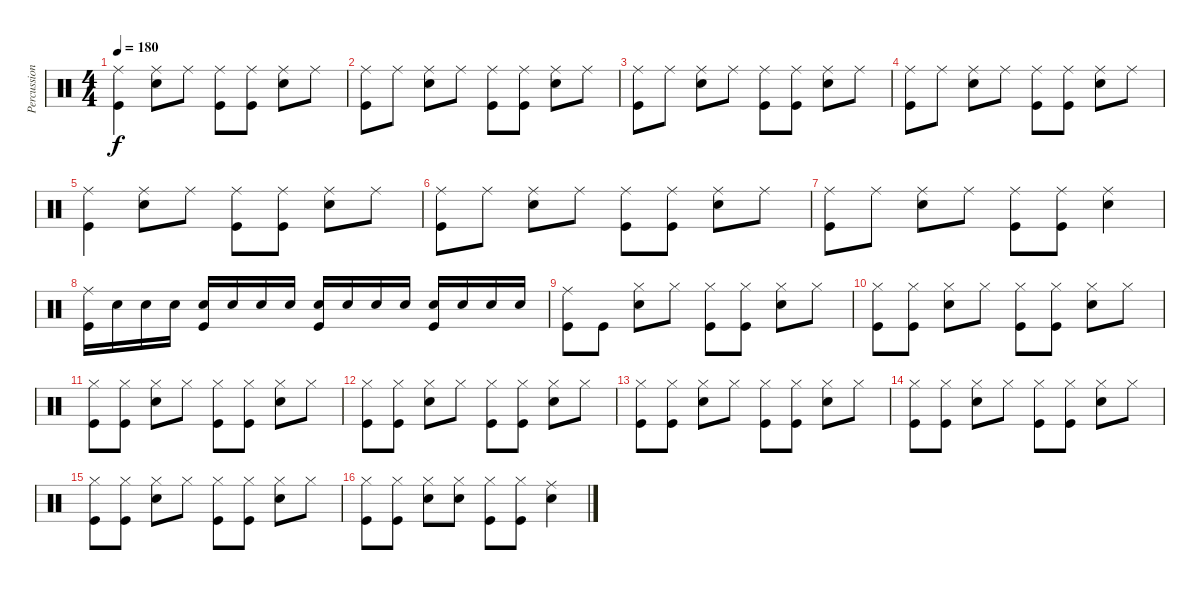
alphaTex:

\track ("Percussion" "Percussion") {instrument percussion}
\staff {score}
\articulation defaults
\ts (4 4)
\tempo 180
\clef neutral
\ks c
("Ride (middle)" "Kick (hit)").4{dy f} ("Ride (middle)" "Snare (hit) 2").8 "Ride (middle)".8 ("Ride (middle)" "Kick (hit)").8 ("Ride (middle)" "Kick (hit)").8 ("Ride (middle)" "Snare (hit) 2").8 "Ride (middle)".8 |
("Ride (middle)" "Kick (hit)").8 "Ride (middle)".8 ("Ride (middle)" "Snare (hit) 2").8 "Ride (middle)".8 ("Ride (middle)" "Kick (hit)").8 ("Ride (middle)" "Kick (hit)").8 ("Ride (middle)" "Snare (hit) 2").8 "Ride (middle)".8 |
("Ride (middle)" "Kick (hit)").8 "Ride (middle)".8 ("Ride (middle)" "Snare (hit) 2").8 "Ride (middle)".8 ("Ride (middle)" "Kick (hit)").8 ("Ride (middle)" "Kick (hit)").8 ("Ride (middle)" "Snare (hit) 2").8 "Ride (middle)".8 |
("Ride (middle)" "Kick (hit)").8 "Ride (middle)".8 ("Ride (middle)" "Snare (hit) 2").8 "Ride (middle)".8 ("Ride (middle)" "Kick (hit)").8 ("Ride (middle)" "Kick (hit)").8 ("Ride (middle)" "Snare (hit) 2").8 "Ride (middle)".8 |
("Ride (middle)" "Kick (hit)").4 ("Ride (middle)" "Snare (hit) 2").8 "Ride (middle)".8 ("Ride (middle)" "Kick (hit)").8 ("Ride (middle)" "Kick (hit)").8 ("Ride (middle)" "Snare (hit) 2").8 "Ride (middle)".8 |
("Ride (middle)" "Kick (hit)").8 "Ride (middle)".8 ("Ride (middle)" "Snare (hit) 2").8 "Ride (middle)".8 ("Ride (middle)" "Kick (hit)").8 ("Ride (middle)" "Kick (hit)").8 ("Ride (middle)" "Snare (hit) 2").8 "Ride (middle)".8 |
("Ride (middle)" "Kick (hit)").8 "Ride (middle)".8 ("Ride (middle)" "Snare (hit) 2").8 "Ride (middle)".8 ("Ride (middle)" "Kick (hit)").8 ("Ride (middle)" "Kick (hit)").8 ("Ride (middle)" "Snare (hit) 2").4 |
("Ride (middle)" "Kick (hit)").16 "Snare (hit) 2".16 "Snare (hit) 2".16 "Snare (hit) 2".16 ("Snare (hit) 2" "Kick (hit)").16 "Snare (hit) 2".16 "Snare (hit) 2".16 "Snare (hit) 2".16 ("Snare (hit) 2" "Kick (hit)").16 "Snare (hit) 2".16 "Snare (hit) 2".16 "Snare (hit) 2".16 ("Snare (hit) 2" "Kick (hit)").16 "Snare (hit) 2".16 "Snare (hit) 2".16 "Snare (hit) 2".16 |
("Ride (middle)" "Kick (hit)").8 "Kick (hit)".8 ("Hi-Hat (closed)" "Snare (hit) 2").8 "Hi-Hat (closed)".8 ("Hi-Hat (closed)" "Kick (hit)").8 ("Hi-Hat (closed)" "Kick (hit)").8 ("Hi-Hat (closed)" "Snare (hit) 2").8 "Hi-Hat (closed)".8 |
("Hi-Hat (closed)" "Kick (hit)").8 ("Hi-Hat (closed)" "Kick (hit)").8 ("Hi-Hat (closed)" "Snare (hit) 2").8 "Hi-Hat (closed)".8 ("Hi-Hat (closed)" "Kick (hit)").8 ("Hi-Hat (closed)" "Kick (hit)").8 ("Hi-Hat (closed)" "Snare (hit) 2").8 "Hi-Hat (closed)".8 |
("Hi-Hat (closed)" "Kick (hit)").8 ("Hi-Hat (closed)" "Kick (hit)").8 ("Hi-Hat (closed)" "Snare (hit) 2").8 "Hi-Hat (closed)".8 ("Hi-Hat (closed)" "Kick (hit)").8 ("Hi-Hat (closed)" "Kick (hit)").8 ("Hi-Hat (closed)" "Snare (hit) 2").8 "Hi-Hat (closed)".8 |
("Hi-Hat (closed)" "Kick (hit)").8 ("Hi-Hat (closed)" "Kick (hit)").8 ("Hi-Hat (closed)" "Snare (hit) 2").8 "Hi-Hat (closed)".8 ("Hi-Hat (closed)" "Kick (hit)").8 ("Hi-Hat (closed)" "Kick (hit)").8 ("Hi-Hat (closed)" "Snare (hit) 2").8 "Hi-Hat (closed)".8 |
("Hi-Hat (closed)" "Kick (hit)").8 ("Hi-Hat (closed)" "Kick (hit)").8 ("Hi-Hat (closed)" "Snare (hit) 2").8 "Hi-Hat (closed)".8 ("Hi-Hat (closed)" "Kick (hit)").8 ("Hi-Hat (closed)" "Kick (hit)").8 ("Hi-Hat (closed)" "Snare (hit) 2").8 "Hi-Hat (closed)".8 |
("Hi-Hat (closed)" "Kick (hit)").8 ("Hi-Hat (closed)" "Kick (hit)").8 ("Hi-Hat (closed)" "Snare (hit) 2").8 "Hi-Hat (closed)".8 ("Hi-Hat (closed)" "Kick (hit)").8 ("Hi-Hat (closed)" "Kick (hit)").8 ("Hi-Hat (closed)" "Snare (hit) 2").8 "Hi-Hat (closed)".8 |
("Hi-Hat (closed)" "Kick (hit)").8 ("Hi-Hat (closed)" "Kick (hit)").8 ("Hi-Hat (closed)" "Snare (hit) 2").8 "Hi-Hat (closed)".8 ("Hi-Hat (closed)" "Kick (hit)").8 ("Hi-Hat (closed)" "Kick (hit)").8 ("Hi-Hat (closed)" "Snare (hit) 2").8 "Hi-Hat (closed)".8 |
("Hi-Hat (closed)" "Kick (hit)").8 ("Hi-Hat (closed)" "Kick (hit)").8 ("Hi-Hat (closed)" "Snare (hit) 2").8 ("Hi-Hat (closed)" "Snare (hit) 2").8 ("Hi-Hat (closed)" "Kick (hit)").8 ("Hi-Hat (closed)" "Kick (hit)").8 ("Ride (middle)" "Snare (hit) 2").4
